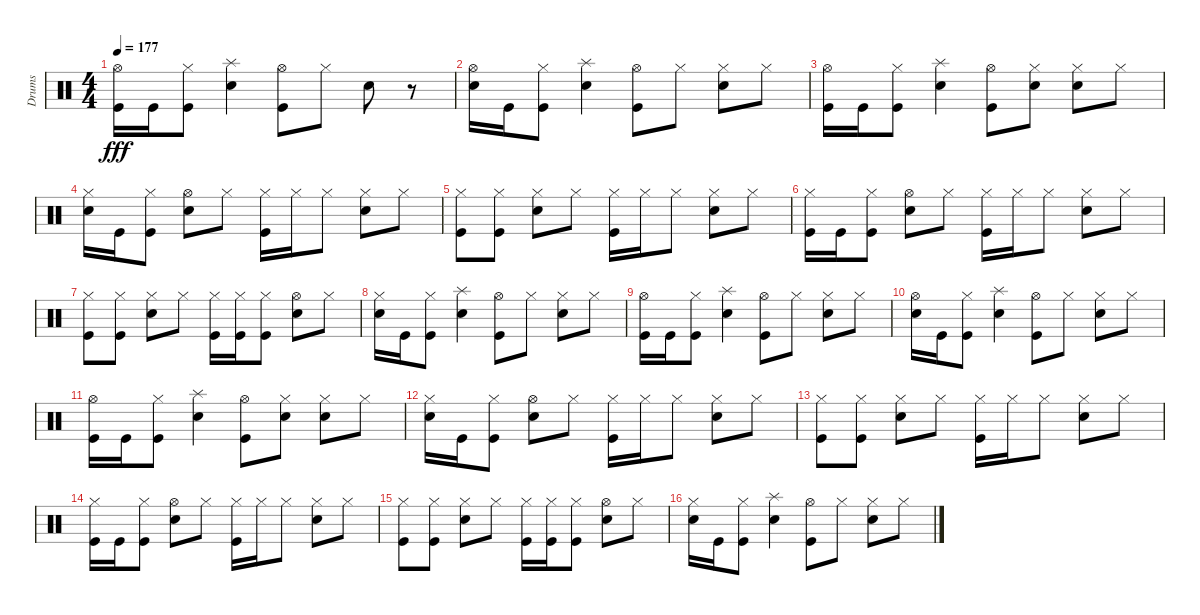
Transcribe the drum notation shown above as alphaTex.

\track ("Drums" "Drums") {instrument percussion}
\staff {score}
\articulation defaults
\ts (4 4)
\tempo 177
\clef neutral
\ks c
("Hi-Hat (open)" "Kick (hit)").16{dy fff} "Kick (hit)".16 ("Hi-Hat (closed)" "Kick (hit)").8 ("Splash (hit)" "Snare (hit) 2").4 ("Hi-Hat (open)" "Kick (hit)").8 "Hi-Hat (closed)".8 "Snare (hit) 2".8 r.8 |
("Hi-Hat (open)" "Snare (hit) 2").16 "Kick (hit)".16 ("Hi-Hat (closed)" "Kick (hit)").8 ("Splash (hit)" "Snare (hit) 2").4 ("Hi-Hat (open)" "Kick (hit)").8 "Hi-Hat (closed)".8 ("Hi-Hat (closed)" "Snare (hit) 2").8 "Hi-Hat (closed)".8 |
("Hi-Hat (open)" "Kick (hit)").16 "Kick (hit)".16 ("Hi-Hat (closed)" "Kick (hit)").8 ("Splash (hit)" "Snare (hit) 2").4 ("Hi-Hat (open)" "Kick (hit)").8 ("Hi-Hat (closed)" "Snare (hit) 2").8 ("Hi-Hat (closed)" "Snare (hit) 2").8 "Hi-Hat (closed)".8 |
("Hi-Hat (closed)" "Snare (hit) 2").16 "Kick (hit)".16 ("Hi-Hat (closed)" "Kick (hit)").8 ("Hi-Hat (open)" "Snare (hit) 2").8 "Hi-Hat (closed)".8 ("Hi-Hat (closed)" "Kick (hit)").16 "Hi-Hat (closed)".16 "Hi-Hat (closed)".8 ("Hi-Hat (closed)" "Snare (hit) 2").8 "Hi-Hat (closed)".8 |
("Hi-Hat (closed)" "Kick (hit)").8 ("Hi-Hat (closed)" "Kick (hit)").8 ("Hi-Hat (closed)" "Snare (hit) 2").8 "Hi-Hat (closed)".8 ("Hi-Hat (closed)" "Kick (hit)").16 "Hi-Hat (closed)".16 "Hi-Hat (closed)".8 ("Hi-Hat (closed)" "Snare (hit) 2").8 "Hi-Hat (closed)".8 |
("Hi-Hat (closed)" "Kick (hit)").16 "Kick (hit)".16 ("Hi-Hat (closed)" "Kick (hit)").8 ("Hi-Hat (open)" "Snare (hit) 2").8 "Hi-Hat (closed)".8 ("Hi-Hat (closed)" "Kick (hit)").16 "Hi-Hat (closed)".16 "Hi-Hat (closed)".8 ("Hi-Hat (closed)" "Snare (hit) 2").8 "Hi-Hat (closed)".8 |
("Hi-Hat (closed)" "Kick (hit)").8 ("Hi-Hat (closed)" "Kick (hit)").8 ("Hi-Hat (closed)" "Snare (hit) 2").8 "Hi-Hat (closed)".8 ("Hi-Hat (closed)" "Kick (hit)").16 ("Hi-Hat (closed)" "Kick (hit)").16 ("Hi-Hat (closed)" "Kick (hit)").8 ("Hi-Hat (open)" "Snare (hit) 2").8 "Hi-Hat (closed)".8 |
("Hi-Hat (closed)" "Snare (hit) 2").16 "Kick (hit)".16 ("Hi-Hat (closed)" "Kick (hit)").8 ("Splash (hit)" "Snare (hit) 2").4 ("Hi-Hat (open)" "Kick (hit)").8 "Hi-Hat (closed)".8 ("Hi-Hat (closed)" "Snare (hit) 2").8 "Hi-Hat (closed)".8 |
("Hi-Hat (open)" "Kick (hit)").16 "Kick (hit)".16 ("Hi-Hat (closed)" "Kick (hit)").8 ("Splash (hit)" "Snare (hit) 2").4 ("Hi-Hat (open)" "Kick (hit)").8 "Hi-Hat (closed)".8 ("Hi-Hat (closed)" "Snare (hit) 2").8 "Hi-Hat (closed)".8 |
("Hi-Hat (open)" "Snare (hit) 2").16 "Kick (hit)".16 ("Hi-Hat (closed)" "Kick (hit)").8 ("Splash (hit)" "Snare (hit) 2").4 ("Hi-Hat (open)" "Kick (hit)").8 "Hi-Hat (closed)".8 ("Hi-Hat (closed)" "Snare (hit) 2").8 "Hi-Hat (closed)".8 |
("Hi-Hat (open)" "Kick (hit)").16 "Kick (hit)".16 ("Hi-Hat (closed)" "Kick (hit)").8 ("Splash (hit)" "Snare (hit) 2").4 ("Hi-Hat (open)" "Kick (hit)").8 ("Hi-Hat (closed)" "Snare (hit) 2").8 ("Hi-Hat (closed)" "Snare (hit) 2").8 "Hi-Hat (closed)".8 |
("Hi-Hat (closed)" "Snare (hit) 2").16 "Kick (hit)".16 ("Hi-Hat (closed)" "Kick (hit)").8 ("Hi-Hat (open)" "Snare (hit) 2").8 "Hi-Hat (closed)".8 ("Hi-Hat (closed)" "Kick (hit)").16 "Hi-Hat (closed)".16 "Hi-Hat (closed)".8 ("Hi-Hat (closed)" "Snare (hit) 2").8 "Hi-Hat (closed)".8 |
("Hi-Hat (closed)" "Kick (hit)").8 ("Hi-Hat (closed)" "Kick (hit)").8 ("Hi-Hat (closed)" "Snare (hit) 2").8 "Hi-Hat (closed)".8 ("Hi-Hat (closed)" "Kick (hit)").16 "Hi-Hat (closed)".16 "Hi-Hat (closed)".8 ("Hi-Hat (closed)" "Snare (hit) 2").8 "Hi-Hat (closed)".8 |
("Hi-Hat (closed)" "Kick (hit)").16 "Kick (hit)".16 ("Hi-Hat (closed)" "Kick (hit)").8 ("Hi-Hat (open)" "Snare (hit) 2").8 "Hi-Hat (closed)".8 ("Hi-Hat (closed)" "Kick (hit)").16 "Hi-Hat (closed)".16 "Hi-Hat (closed)".8 ("Hi-Hat (closed)" "Snare (hit) 2").8 "Hi-Hat (closed)".8 |
("Hi-Hat (closed)" "Kick (hit)").8 ("Hi-Hat (closed)" "Kick (hit)").8 ("Hi-Hat (closed)" "Snare (hit) 2").8 "Hi-Hat (closed)".8 ("Hi-Hat (closed)" "Kick (hit)").16 ("Hi-Hat (closed)" "Kick (hit)").16 ("Hi-Hat (closed)" "Kick (hit)").8 ("Hi-Hat (open)" "Snare (hit) 2").8 "Hi-Hat (closed)".8 |
("Hi-Hat (closed)" "Snare (hit) 2").16 "Kick (hit)".16 ("Hi-Hat (closed)" "Kick (hit)").8 ("Splash (hit)" "Snare (hit) 2").4 ("Hi-Hat (open)" "Kick (hit)").8 "Hi-Hat (closed)".8 ("Hi-Hat (closed)" "Snare (hit) 2").8 "Hi-Hat (closed)".8
